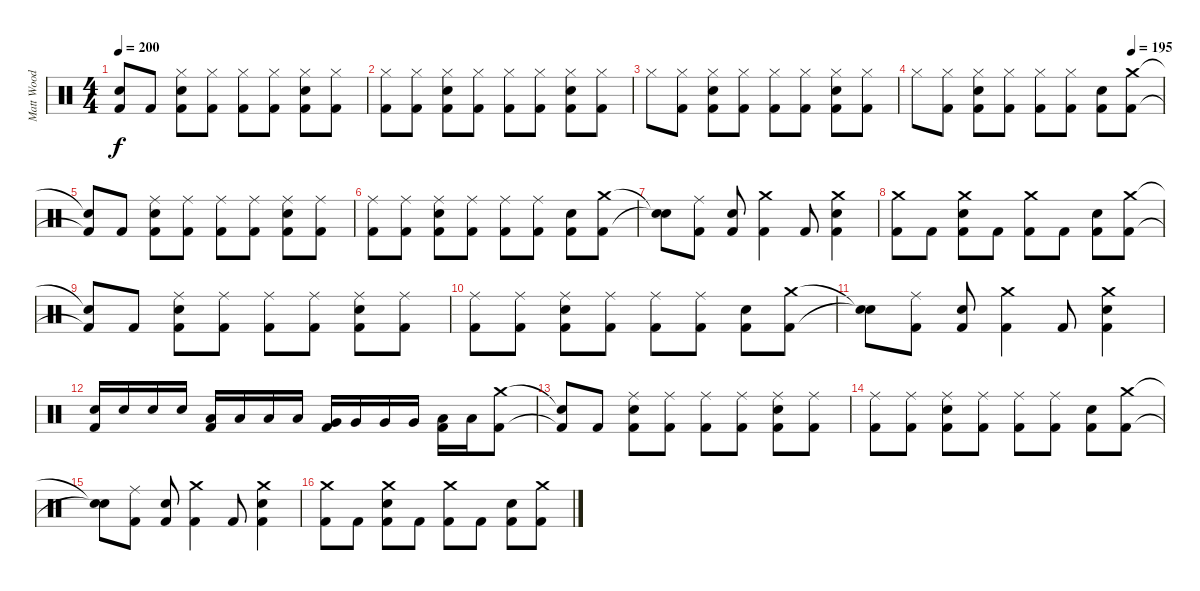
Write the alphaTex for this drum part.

\track ("Matt Wood" "Matt Wood") {instrument percussion}
\staff {score}
\articulation defaults
\ts (4 4)
\tempo 200
\clef neutral
\ks c
("Snare (hit)"{t} "Kick (hit) 2"{t}).8{dy f} "Kick (hit) 2".8 ("Hi-Hat (closed)" "Snare (hit) 2" "Kick (hit) 2").8 ("Hi-Hat (closed)" "Kick (hit) 2").8 ("Hi-Hat (closed)" "Kick (hit) 2").8 ("Hi-Hat (closed)" "Kick (hit) 2").8 ("Hi-Hat (closed)" "Snare (hit) 2" "Kick (hit) 2").8 ("Hi-Hat (closed)" "Kick (hit) 2").8 |
("Hi-Hat (closed)" "Kick (hit) 2").8 ("Hi-Hat (closed)" "Kick (hit) 2").8 ("Hi-Hat (closed)" "Snare (hit) 2" "Kick (hit) 2").8 ("Hi-Hat (closed)" "Kick (hit) 2").8 ("Hi-Hat (closed)" "Kick (hit) 2").8 ("Hi-Hat (closed)" "Kick (hit) 2").8 ("Hi-Hat (closed)" "Snare (hit) 2" "Kick (hit) 2").8 ("Hi-Hat (closed)" "Kick (hit) 2").8 |
"Hi-Hat (closed)".8 ("Hi-Hat (closed)" "Kick (hit) 2").8 ("Hi-Hat (closed)" "Snare (hit) 2" "Kick (hit) 2").8 ("Hi-Hat (closed)" "Kick (hit) 2").8 ("Hi-Hat (closed)" "Kick (hit) 2").8 ("Hi-Hat (closed)" "Kick (hit) 2").8 ("Hi-Hat (closed)" "Snare (hit) 2" "Kick (hit) 2").8 ("Hi-Hat (closed)" "Kick (hit) 2").8 |
\tempo (195 0.875)
"Hi-Hat (closed)".8 ("Hi-Hat (closed)" "Kick (hit) 2").8 ("Hi-Hat (closed)" "Snare (hit) 2" "Kick (hit) 2").8 ("Hi-Hat (closed)" "Kick (hit) 2").8 ("Hi-Hat (closed)" "Kick (hit) 2").8 ("Hi-Hat (closed)" "Kick (hit) 2").8 ("Snare (hit) 2" "Kick (hit) 2").8 ("Crash medium (hit)" "Kick (hit) 2").8 |
("Snare (hit)"{t} "Kick (hit) 2"{t}).8 "Kick (hit) 2".8 ("Ride (middle)" "Snare (hit) 2" "Kick (hit) 2").8 ("Ride (middle)" "Kick (hit) 2").8 ("Ride (middle)" "Kick (hit) 2").8 ("Ride (middle)" "Kick (hit) 2").8 ("Ride (middle)" "Snare (hit) 2" "Kick (hit) 2").8 ("Ride (middle)" "Kick (hit) 2").8 |
("Ride (middle)" "Kick (hit) 2").8 ("Ride (middle)" "Kick (hit) 2").8 ("Ride (middle)" "Snare (hit) 2" "Kick (hit) 2").8 ("Ride (middle)" "Kick (hit) 2").8 ("Ride (middle)" "Kick (hit) 2").8 ("Ride (middle)" "Kick (hit) 2").8 ("Snare (hit) 2" "Kick (hit) 2").8 ("Crash medium (hit)" "Kick (hit) 2").8 |
("Snare (hit)"{t} "Snare (hit)"{t}).8 ("Ride (middle)" "Kick (hit) 2").8 ("Snare (hit) 2" "Kick (hit) 2").8 ("Crash medium (hit)" "Kick (hit) 2").4 "Kick (hit) 2".8 ("Crash medium (hit)" "Snare (hit) 2" "Kick (hit) 2").4 |
("Crash medium (hit)" "Kick (hit) 2").8 "Kick (hit) 2".8 ("Crash medium (hit)" "Snare (hit) 2" "Kick (hit) 2").8 "Kick (hit) 2".8 ("Crash medium (hit)" "Kick (hit) 2").8 "Kick (hit) 2".8 ("Snare (hit) 2" "Kick (hit) 2").8 ("Crash medium (hit)" "Kick (hit) 2").8 |
("Snare (hit)"{t} "Kick (hit) 2"{t}).8 "Kick (hit) 2".8 ("Ride (middle)" "Snare (hit) 2" "Kick (hit) 2").8 ("Ride (middle)" "Kick (hit) 2").8 ("Ride (middle)" "Kick (hit) 2").8 ("Ride (middle)" "Kick (hit) 2").8 ("Ride (middle)" "Snare (hit) 2" "Kick (hit) 2").8 ("Ride (middle)" "Kick (hit) 2").8 |
("Ride (middle)" "Kick (hit) 2").8 ("Ride (middle)" "Kick (hit) 2").8 ("Ride (middle)" "Snare (hit) 2" "Kick (hit) 2").8 ("Ride (middle)" "Kick (hit) 2").8 ("Ride (middle)" "Kick (hit) 2").8 ("Ride (middle)" "Kick (hit) 2").8 ("Snare (hit) 2" "Kick (hit) 2").8 ("Crash medium (hit)" "Kick (hit) 2").8 |
("Snare (hit)"{t} "Snare (hit)"{t}).8 ("Ride (middle)" "Kick (hit) 2").8 ("Snare (hit) 2" "Kick (hit) 2").8 ("Crash medium (hit)" "Kick (hit) 2").4 "Kick (hit) 2".8 ("Crash medium (hit)" "Snare (hit) 2" "Kick (hit) 2").4 |
("Snare (hit) 2" "Kick (hit) 2").16 "Snare (hit) 2".16 "Snare (hit) 2".16 "Snare (hit) 2".16 ("Low Tom (hit)" "Kick (hit) 2").16 "Low Tom (hit)".16 "Low Tom (hit)".16 "Low Tom (hit)".16 ("Very Low Tom (hit)" "Kick (hit) 2").16 "Very Low Tom (hit)".16 "Very Low Tom (hit)".16 "Very Low Tom (hit)".16 ("Low Floor Tom (hit)" "Kick (hit) 2").16 "Low Floor Tom (hit)".16 ("Crash medium (hit)" "Kick (hit) 2").8 |
("Snare (hit)"{t} "Kick (hit) 2"{t}).8 "Kick (hit) 2".8 ("Ride (middle)" "Snare (hit) 2" "Kick (hit) 2").8 ("Ride (middle)" "Kick (hit) 2").8 ("Ride (middle)" "Kick (hit) 2").8 ("Ride (middle)" "Kick (hit) 2").8 ("Ride (middle)" "Snare (hit) 2" "Kick (hit) 2").8 ("Ride (middle)" "Kick (hit) 2").8 |
("Ride (middle)" "Kick (hit) 2").8 ("Ride (middle)" "Kick (hit) 2").8 ("Ride (middle)" "Snare (hit) 2" "Kick (hit) 2").8 ("Ride (middle)" "Kick (hit) 2").8 ("Ride (middle)" "Kick (hit) 2").8 ("Ride (middle)" "Kick (hit) 2").8 ("Snare (hit) 2" "Kick (hit) 2").8 ("Crash medium (hit)" "Kick (hit) 2").8 |
("Snare (hit)"{t} "Snare (hit)"{t}).8 ("Ride (middle)" "Kick (hit) 2").8 ("Snare (hit) 2" "Kick (hit) 2").8 ("Crash medium (hit)" "Kick (hit) 2").4 "Kick (hit) 2".8 ("Crash medium (hit)" "Snare (hit) 2" "Kick (hit) 2").4 |
("Crash medium (hit)" "Kick (hit) 2").8 "Kick (hit) 2".8 ("Crash medium (hit)" "Snare (hit) 2" "Kick (hit) 2").8 "Kick (hit) 2".8 ("Crash medium (hit)" "Kick (hit) 2").8 "Kick (hit) 2".8 ("Snare (hit) 2" "Kick (hit) 2").8 ("Crash medium (hit)" "Kick (hit) 2").8
